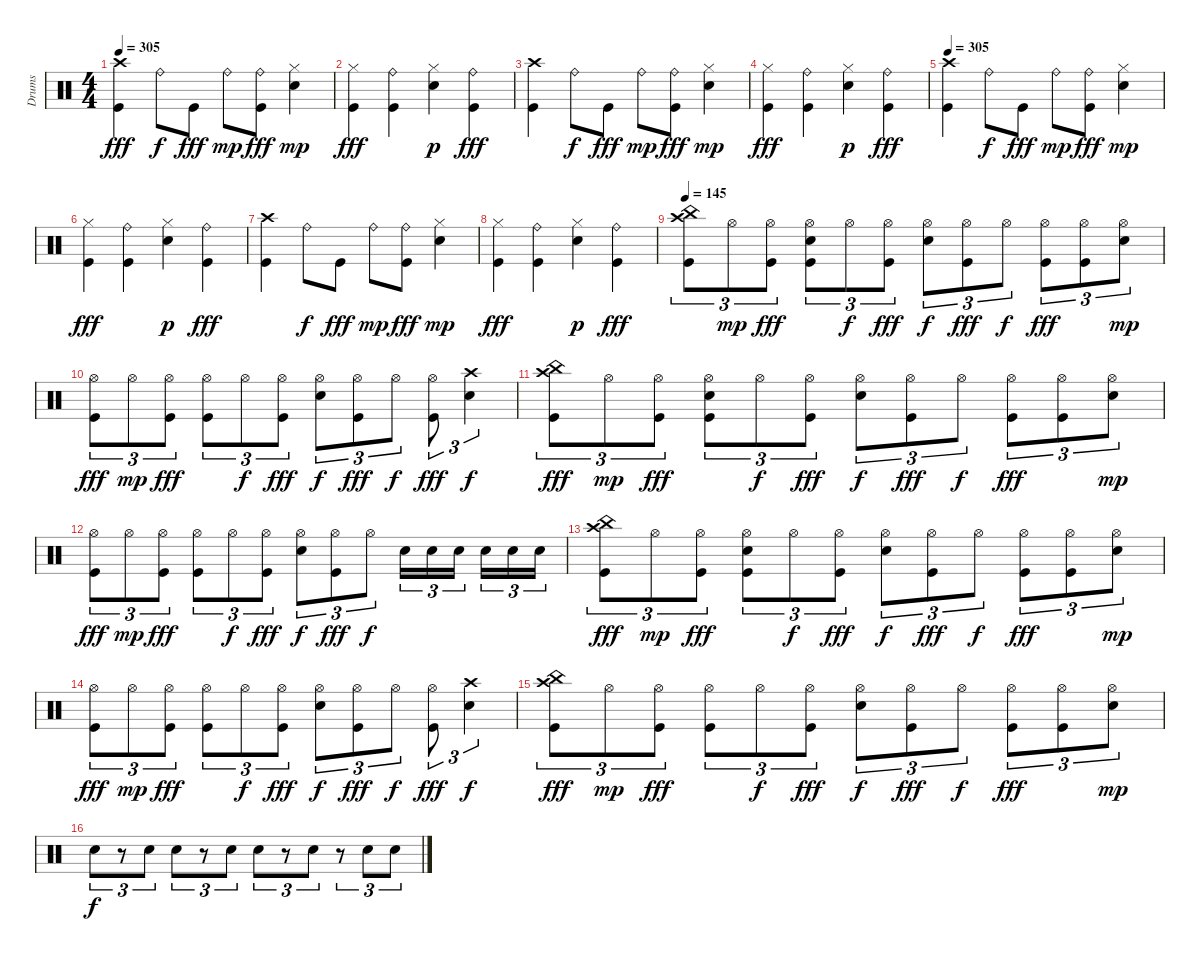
\track ("Drums" "Drums") {instrument percussion}
\staff {score}
\articulation defaults
\ts (4 4)
\tempo 305
\clef neutral
\ks c
("Crash high (hit)" "Kick (hit)").4{dy fff} "Ride (bell)".8{dy f} "Kick (hit)".8{dy fff} "Ride (bell)".8{dy mp} ("Ride (bell)" "Kick (hit)").8{dy fff} ("Hi-Hat (closed)" "Electric Snare (hit)").4{dy mp} |
("Hi-Hat (closed)" "Kick (hit)").4{dy fff} ("Ride (bell)" "Kick (hit)").4 ("Hi-Hat (closed)" "Electric Snare (hit)").4{dy p} ("Ride (bell)" "Kick (hit)").4{dy fff} |
("Crash high (hit)" "Kick (hit)").4 "Ride (bell)".8{dy f} "Kick (hit)".8{dy fff} "Ride (bell)".8{dy mp} ("Ride (bell)" "Kick (hit)").8{dy fff} ("Hi-Hat (closed)" "Electric Snare (hit)").4{dy mp} |
("Hi-Hat (closed)" "Kick (hit)").4{dy fff} ("Ride (bell)" "Kick (hit)").4 ("Hi-Hat (closed)" "Electric Snare (hit)").4{dy p} ("Ride (bell)" "Kick (hit)").4{dy fff} |
\tempo 305
("Crash high (hit)" "Kick (hit)").4 "Ride (bell)".8{dy f} "Kick (hit)".8{dy fff} "Ride (bell)".8{dy mp} ("Ride (bell)" "Kick (hit)").8{dy fff} ("Hi-Hat (closed)" "Electric Snare (hit)").4{dy mp} |
("Hi-Hat (closed)" "Kick (hit)").4{dy fff} ("Ride (bell)" "Kick (hit)").4 ("Hi-Hat (closed)" "Electric Snare (hit)").4{dy p} ("Ride (bell)" "Kick (hit)").4{dy fff} |
("Crash high (hit)" "Kick (hit)").4 "Ride (bell)".8{dy f} "Kick (hit)".8{dy fff} "Ride (bell)".8{dy mp} ("Ride (bell)" "Kick (hit)").8{dy fff} ("Hi-Hat (closed)" "Electric Snare (hit)").4{dy mp} |
("Hi-Hat (closed)" "Kick (hit)").4{dy fff} ("Ride (bell)" "Kick (hit)").4 ("Hi-Hat (closed)" "Electric Snare (hit)").4{dy p} ("Ride (bell)" "Kick (hit)").4{dy fff} |
\tempo 145
("Crash high (hit)" "China (hit)" "Kick (hit)").8{tu (3 2)} "Hi-Hat (open)".8{tu (3 2) dy mp} ("Hi-Hat (open)" "Kick (hit)").8{tu (3 2) dy fff} ("Hi-Hat (open)" "Snare (hit)" "Kick (hit)").8{tu (3 2)} "Hi-Hat (open)".8{tu (3 2) dy f} ("Hi-Hat (open)" "Kick (hit)").8{tu (3 2) dy fff} ("Hi-Hat (open)" "Electric Snare (hit)").8{tu (3 2) dy f} ("Hi-Hat (open)" "Kick (hit)").8{tu (3 2) dy fff} "Hi-Hat (open)".8{tu (3 2) dy f} ("Hi-Hat (open)" "Kick (hit)").8{tu (3 2) dy fff} ("Hi-Hat (open)" "Kick (hit)").8{tu (3 2)} ("Hi-Hat (open)" "Electric Snare (hit)").8{tu (3 2) dy mp} |
("Hi-Hat (open)" "Kick (hit)").8{tu (3 2) dy fff} "Hi-Hat (open)".8{tu (3 2) dy mp} ("Hi-Hat (open)" "Kick (hit)").8{tu (3 2) dy fff} ("Hi-Hat (open)" "Kick (hit)").8{tu (3 2)} "Hi-Hat (open)".8{tu (3 2) dy f} ("Hi-Hat (open)" "Kick (hit)").8{tu (3 2) dy fff} ("Hi-Hat (open)" "Electric Snare (hit)").8{tu (3 2) dy f} ("Hi-Hat (open)" "Kick (hit)").8{tu (3 2) dy fff} "Hi-Hat (open)".8{tu (3 2) dy f} ("Hi-Hat (open)" "Kick (hit)").8{tu (3 2) dy fff} ("Crash high (hit)" "Electric Snare (hit)").4{tu (3 2) dy f} |
("Crash high (hit)" "China (hit)" "Kick (hit)").8{tu (3 2) dy fff} "Hi-Hat (open)".8{tu (3 2) dy mp} ("Hi-Hat (open)" "Kick (hit)").8{tu (3 2) dy fff} ("Hi-Hat (open)" "Snare (hit)" "Kick (hit)").8{tu (3 2)} "Hi-Hat (open)".8{tu (3 2) dy f} ("Hi-Hat (open)" "Kick (hit)").8{tu (3 2) dy fff} ("Hi-Hat (open)" "Electric Snare (hit)").8{tu (3 2) dy f} ("Hi-Hat (open)" "Kick (hit)").8{tu (3 2) dy fff} "Hi-Hat (open)".8{tu (3 2) dy f} ("Hi-Hat (open)" "Kick (hit)").8{tu (3 2) dy fff} ("Hi-Hat (open)" "Kick (hit)").8{tu (3 2)} ("Hi-Hat (open)" "Electric Snare (hit)").8{tu (3 2) dy mp} |
("Hi-Hat (open)" "Kick (hit)").8{tu (3 2) dy fff} "Hi-Hat (open)".8{tu (3 2) dy mp} ("Hi-Hat (open)" "Kick (hit)").8{tu (3 2) dy fff} ("Hi-Hat (open)" "Kick (hit)").8{tu (3 2)} "Hi-Hat (open)".8{tu (3 2) dy f} ("Hi-Hat (open)" "Kick (hit)").8{tu (3 2) dy fff} ("Hi-Hat (open)" "Electric Snare (hit)").8{tu (3 2) dy f} ("Hi-Hat (open)" "Kick (hit)").8{tu (3 2) dy fff} "Hi-Hat (open)".8{tu (3 2) dy f} "Electric Snare (hit)".16{tu (3 2)} "Electric Snare (hit)".16{tu (3 2)} "Electric Snare (hit)".16{tu (3 2)} "Electric Snare (hit)".16{tu (3 2)} "Electric Snare (hit)".16{tu (3 2)} "Electric Snare (hit)".16{tu (3 2)} |
("Crash high (hit)" "China (hit)" "Kick (hit)").8{tu (3 2) dy fff} "Hi-Hat (open)".8{tu (3 2) dy mp} ("Hi-Hat (open)" "Kick (hit)").8{tu (3 2) dy fff} ("Hi-Hat (open)" "Snare (hit)" "Kick (hit)").8{tu (3 2)} "Hi-Hat (open)".8{tu (3 2) dy f} ("Hi-Hat (open)" "Kick (hit)").8{tu (3 2) dy fff} ("Hi-Hat (open)" "Electric Snare (hit)").8{tu (3 2) dy f} ("Hi-Hat (open)" "Kick (hit)").8{tu (3 2) dy fff} "Hi-Hat (open)".8{tu (3 2) dy f} ("Hi-Hat (open)" "Kick (hit)").8{tu (3 2) dy fff} ("Hi-Hat (open)" "Kick (hit)").8{tu (3 2)} ("Hi-Hat (open)" "Electric Snare (hit)").8{tu (3 2) dy mp} |
("Hi-Hat (open)" "Kick (hit)").8{tu (3 2) dy fff} "Hi-Hat (open)".8{tu (3 2) dy mp} ("Hi-Hat (open)" "Kick (hit)").8{tu (3 2) dy fff} ("Hi-Hat (open)" "Kick (hit)").8{tu (3 2)} "Hi-Hat (open)".8{tu (3 2) dy f} ("Hi-Hat (open)" "Kick (hit)").8{tu (3 2) dy fff} ("Hi-Hat (open)" "Electric Snare (hit)").8{tu (3 2) dy f} ("Hi-Hat (open)" "Kick (hit)").8{tu (3 2) dy fff} "Hi-Hat (open)".8{tu (3 2) dy f} ("Hi-Hat (open)" "Kick (hit)").8{tu (3 2) dy fff} ("Crash high (hit)" "Electric Snare (hit)").4{tu (3 2) dy f} |
("Crash high (hit)" "China (hit)" "Kick (hit)").8{tu (3 2) dy fff} "Hi-Hat (open)".8{tu (3 2) dy mp} ("Hi-Hat (open)" "Kick (hit)").8{tu (3 2) dy fff} ("Hi-Hat (open)" "Kick (hit)").8{tu (3 2)} "Hi-Hat (open)".8{tu (3 2) dy f} ("Hi-Hat (open)" "Kick (hit)").8{tu (3 2) dy fff} ("Hi-Hat (open)" "Electric Snare (hit)").8{tu (3 2) dy f} ("Hi-Hat (open)" "Kick (hit)").8{tu (3 2) dy fff} "Hi-Hat (open)".8{tu (3 2) dy f} ("Hi-Hat (open)" "Kick (hit)").8{tu (3 2) dy fff} ("Hi-Hat (open)" "Kick (hit)").8{tu (3 2)} ("Hi-Hat (open)" "Electric Snare (hit)").8{tu (3 2) dy mp} |
"Electric Snare (hit)".8{tu (3 2) dy f} r.8{tu (3 2)} "Electric Snare (hit)".8{tu (3 2)} "Electric Snare (hit)".8{tu (3 2)} r.8{tu (3 2)} "Electric Snare (hit)".8{tu (3 2)} "Electric Snare (hit)".8{tu (3 2)} r.8{tu (3 2)} "Electric Snare (hit)".8{tu (3 2)} r.8{tu (3 2)} "Electric Snare (hit)".8{tu (3 2)} "Electric Snare (hit)".8{tu (3 2)}
